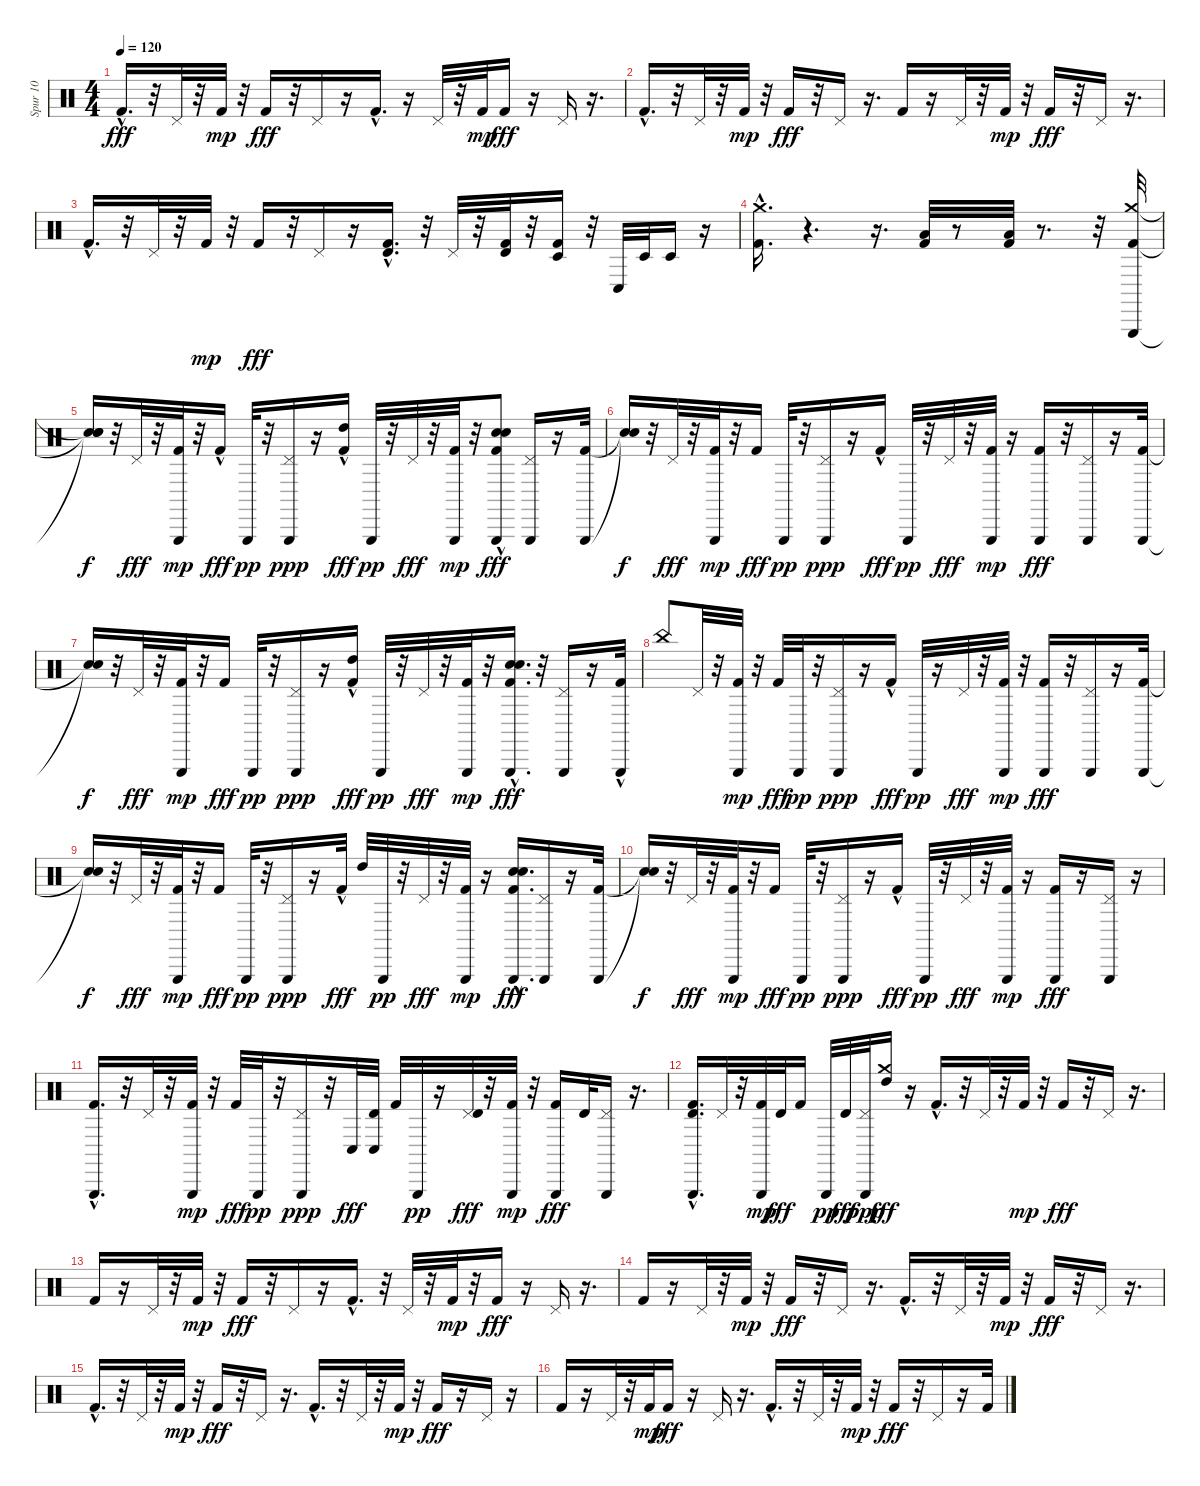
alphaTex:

\track ("Spur 10" "Spur 10") {instrument percussion}
\staff {score}
\articulation defaults
\ts (4 4)
\tempo 120
\clef neutral
\ks c "Kick (hit) 2"{hac}.16{d dy fff}
r.32 "Pedal Hi-Hat (hit)".32 r.32 "Kick (hit) 2".32{dy mp} r.32 "Kick (hit) 2".16{dy fff} r.32 "Pedal Hi-Hat (hit)".16 r.16 "Kick (hit) 2"{hac}.16{d} r.16 "Pedal Hi-Hat (hit)".32 r.32 "Kick (hit) 2".32{dy mp} "Kick (hit) 2".16{dy fff} r.16 "Pedal Hi-Hat (hit)".16 r.16{d} |
"Kick (hit) 2"{hac}.16{d} r.32 "Pedal Hi-Hat (hit)".32 r.32 "Kick (hit) 2".32{dy mp} r.32 "Kick (hit) 2".16{dy fff} r.32 "Pedal Hi-Hat (hit)".16 r.16{d} "Kick (hit) 2".16 r.16 "Pedal Hi-Hat (hit)".32 r.32 "Kick (hit) 2".32{dy mp} r.32 "Kick (hit) 2".16{dy fff} r.32 "Pedal Hi-Hat (hit)".16 r.16{d} |
"Kick (hit) 2"{hac}.16{d} r.32 "Pedal Hi-Hat (hit)".32 r.32 "Kick (hit) 2".32{dy mp} r.32 "Kick (hit) 2".16{dy fff} r.32 "Pedal Hi-Hat (hit)".16 r.16 ("Timbale high (hit)" "Kick (hit) 2"{hac}).16{d} r.32 "Pedal Hi-Hat (hit)".32 r.32 ("Kick (hit) 2" "Timbale high (hit)").32 r.32 ("Kick (hit) 2" "Timbale low (hit)").16 r.32 "Conga low (hit)".32 "Timbale low (hit)".32 "Timbale low (hit)".16 r.16 |
("Crash medium (hit)" "Kick (hit) 2"{hac}).16{d} r.4{d} r.16{d} ("Kick (hit) 2" "Low Floor Tom (hit)").32 r.8 ("Kick (hit) 2" "Low Floor Tom (hit)").32 r.8{d} r.32 ("Crash medium (hit)" "Triangle (hit)" "Kick (hit) 2").32 |
("Snare (hit)"{t} "Snare (hit)"{t} "Snare (hit)"{t}).16{dy f} r.32 "Pedal Hi-Hat (hit)".32{dy fff} r.32 ("Triangle (hit)" "Kick (hit) 2").32{dy mp} r.32 "Kick (hit) 2"{hac}.16{dy fff} "Triangle (hit)".32{dy pp} r.32 ("Pedal Hi-Hat (hit)" "Triangle (hit)").16{dy ppp} r.16 ("High Tom (hit)" "Kick (hit) 2"{hac}).16{dy fff} "Triangle (hit)".32{dy pp} r.32 "Pedal Hi-Hat (hit)".32{dy fff} r.32 ("Triangle (hit)" "Kick (hit) 2").32{dy mp} r.32 ("Hand Clap (hit)"{hac} "Snare (hit) 2" "Triangle (hit)" "Kick (hit) 2").8{dy fff} ("Triangle (hit)" "Pedal Hi-Hat (hit)").16 r.16 ("Triangle (hit)" "Kick (hit) 2").32 |
("Snare (hit)"{t} "Snare (hit)"{t}).16{dy f} r.32 "Pedal Hi-Hat (hit)".32{dy fff} r.32 ("Triangle (hit)" "Kick (hit) 2").32{dy mp} r.32 "Kick (hit) 2".16{dy fff} "Triangle (hit)".32{dy pp} r.32 ("Pedal Hi-Hat (hit)" "Triangle (hit)").16{dy ppp} r.16 "Kick (hit) 2"{hac}.16{dy fff} "Triangle (hit)".32{dy pp} r.32 "Pedal Hi-Hat (hit)".32{dy fff} r.32 ("Triangle (hit)" "Kick (hit) 2").32{dy mp} r.16 ("Triangle (hit)" "Kick (hit) 2").16{dy fff} r.32 ("Triangle (hit)" "Pedal Hi-Hat (hit)").16 r.16 ("Triangle (hit)" "Kick (hit) 2").32 |
("Snare (hit)"{t} "Snare (hit)"{t}).16{dy f} r.32 "Pedal Hi-Hat (hit)".32{dy fff} r.32 ("Triangle (hit)" "Kick (hit) 2").32{dy mp} r.32 "Kick (hit) 2".16{dy fff} "Triangle (hit)".32{dy pp} r.32 ("Pedal Hi-Hat (hit)" "Triangle (hit)").16{dy ppp} r.16 ("Kick (hit) 2"{hac} "High Tom (hit)").16{dy fff} "Triangle (hit)".32{dy pp} r.32 "Pedal Hi-Hat (hit)".32{dy fff} r.32 ("Triangle (hit)" "Kick (hit) 2").32{dy mp} r.32 ("Hand Clap (hit)"{hac} "Snare (hit) 2"{hac} "Triangle (hit)" "Kick (hit) 2").16{d dy fff} r.32 ("Triangle (hit)" "Pedal Hi-Hat (hit)").16 r.16 ("Triangle (hit)" "Kick (hit) 2"{hac}).32 |
"China (hit)".8 "Pedal Hi-Hat (hit)".32 r.32 ("Triangle (hit)" "Kick (hit) 2").32{dy mp} r.32 "Kick (hit) 2".32{dy fff} "Triangle (hit)".32{dy pp} r.32 ("Pedal Hi-Hat (hit)" "Triangle (hit)").16{dy ppp} r.16 "Kick (hit) 2"{hac}.16{dy fff} "Triangle (hit)".32{dy pp} r.16 "Pedal Hi-Hat (hit)".32{dy fff} r.32 ("Triangle (hit)" "Kick (hit) 2").32{dy mp} r.32 ("Triangle (hit)" "Kick (hit) 2").16{dy fff} r.32 ("Triangle (hit)" "Pedal Hi-Hat (hit)").16 r.16 ("Triangle (hit)" "Kick (hit) 2").32 |
("Snare (hit)"{t} "Snare (hit)"{t}).16{dy f} r.32 "Pedal Hi-Hat (hit)".32{dy fff} r.32 ("Triangle (hit)" "Kick (hit) 2").32{dy mp} r.32 "Kick (hit) 2".16{dy fff} "Triangle (hit)".32{dy pp} r.32 ("Pedal Hi-Hat (hit)" "Triangle (hit)").16{dy ppp} r.16 "Kick (hit) 2"{hac}.32{dy fff} "High Tom (hit)".32 "Triangle (hit)".32{dy pp} r.32 "Pedal Hi-Hat (hit)".32{dy fff} r.32 ("Triangle (hit)" "Kick (hit) 2").32{dy mp} r.16 ("Triangle (hit)" "Kick (hit) 2" "Hand Clap (hit)"{hac} "Snare (hit) 2").16{d dy fff} ("Triangle (hit)" "Pedal Hi-Hat (hit)").16 r.16 ("Triangle (hit)" "Kick (hit) 2").32 |
("Snare (hit)"{t} "Snare (hit)"{t}).16{dy f} r.32 "Pedal Hi-Hat (hit)".32{dy fff} r.32 ("Triangle (hit)" "Kick (hit) 2").32{dy mp} r.32 "Kick (hit) 2".16{dy fff} "Triangle (hit)".32{dy pp} r.32 ("Pedal Hi-Hat (hit)" "Triangle (hit)").16{dy ppp} r.16 "Kick (hit) 2"{hac}.16{dy fff} "Triangle (hit)".32{dy pp} r.32 "Pedal Hi-Hat (hit)".32{dy fff} r.32 ("Triangle (hit)" "Kick (hit) 2").32{dy mp} r.16 ("Triangle (hit)" "Kick (hit) 2").16{dy fff} r.16 ("Triangle (hit)" "Pedal Hi-Hat (hit)").16 r.16 |
("Triangle (hit)" "Kick (hit) 2"{hac}).16{d} r.32 "Pedal Hi-Hat (hit)".32 r.32 ("Triangle (hit)" "Kick (hit) 2").32{dy mp} r.32 "Kick (hit) 2".32{dy fff} "Triangle (hit)".32{dy pp} r.32 ("Pedal Hi-Hat (hit)" "Triangle (hit)").16{dy ppp} r.32 "Conga low (hit)".32{dy fff} ("Conga low (hit)" "Timbale high (hit)").32 "Kick (hit) 2".32 "Triangle (hit)".32{dy pp} r.16 ("Pedal Hi-Hat (hit)" "Timbale high (hit)").32{dy fff} r.32 ("Triangle (hit)" "Kick (hit) 2").32{dy mp} r.32 ("Triangle (hit)" "Kick (hit) 2").16{dy fff} "Timbale high (hit)".32 ("Triangle (hit)" "Pedal Hi-Hat (hit)").16 r.16{d} |
("Triangle (hit)" "Kick (hit) 2"{hac} "Timbale high (hit)").16{d} "Pedal Hi-Hat (hit)".32 r.32 ("Triangle (hit)" "Kick (hit) 2").32{dy mp} "Timbale high (hit)".32{dy fff} "Kick (hit) 2".16 "Triangle (hit)".32{dy pp} "Timbale high (hit)".32{dy fff} ("Pedal Hi-Hat (hit)" "Triangle (hit)").32{dy ppp} ("High Tom (hit)" "Crash medium (hit)").16{dy fff} r.16 "Kick (hit) 2"{hac}.16{d} r.32 "Pedal Hi-Hat (hit)".32 r.32 "Kick (hit) 2".32{dy mp} r.32 "Kick (hit) 2".16{dy fff} r.32 "Pedal Hi-Hat (hit)".16 r.16{d} |
"Kick (hit) 2".16 r.16 "Pedal Hi-Hat (hit)".32 r.32 "Kick (hit) 2".32{dy mp} r.32 "Kick (hit) 2".16{dy fff} r.32 "Pedal Hi-Hat (hit)".16 r.16 "Kick (hit) 2"{hac}.16{d} r.32 "Pedal Hi-Hat (hit)".32 r.32 "Kick (hit) 2".32{dy mp} r.32 "Kick (hit) 2".16{dy fff} r.16 "Pedal Hi-Hat (hit)".16 r.16{d} |
"Kick (hit) 2".16 r.16 "Pedal Hi-Hat (hit)".32 r.32 "Kick (hit) 2".32{dy mp} r.32 "Kick (hit) 2".16{dy fff} r.32 "Pedal Hi-Hat (hit)".16 r.16{d} "Kick (hit) 2"{hac}.16{d} r.32 "Pedal Hi-Hat (hit)".32 r.32 "Kick (hit) 2".32{dy mp} r.32 "Kick (hit) 2".16{dy fff} r.32 "Pedal Hi-Hat (hit)".16 r.16{d} |
"Kick (hit) 2"{hac}.16{d} r.32 "Pedal Hi-Hat (hit)".32 r.32 "Kick (hit) 2".32{dy mp} r.32 "Kick (hit) 2".16{dy fff} r.32 "Pedal Hi-Hat (hit)".16 r.16{d} "Kick (hit) 2"{hac}.16{d} r.32 "Pedal Hi-Hat (hit)".32 r.32 "Kick (hit) 2".32{dy mp} r.32 "Kick (hit) 2".16{dy fff} r.16 "Pedal Hi-Hat (hit)".16 r.16 |
"Kick (hit) 2".16 r.16 "Pedal Hi-Hat (hit)".32 r.32 "Kick (hit) 2".32{dy mp} "Kick (hit) 2".16{dy fff} r.16 "Pedal Hi-Hat (hit)".16 r.16{d} "Kick (hit) 2"{hac}.16{d} r.32 "Pedal Hi-Hat (hit)".32 r.32 "Kick (hit) 2".32{dy mp} r.32 "Kick (hit) 2".16{dy fff} r.32 "Pedal Hi-Hat (hit)".16 r.16 "Kick (hit) 2".32
